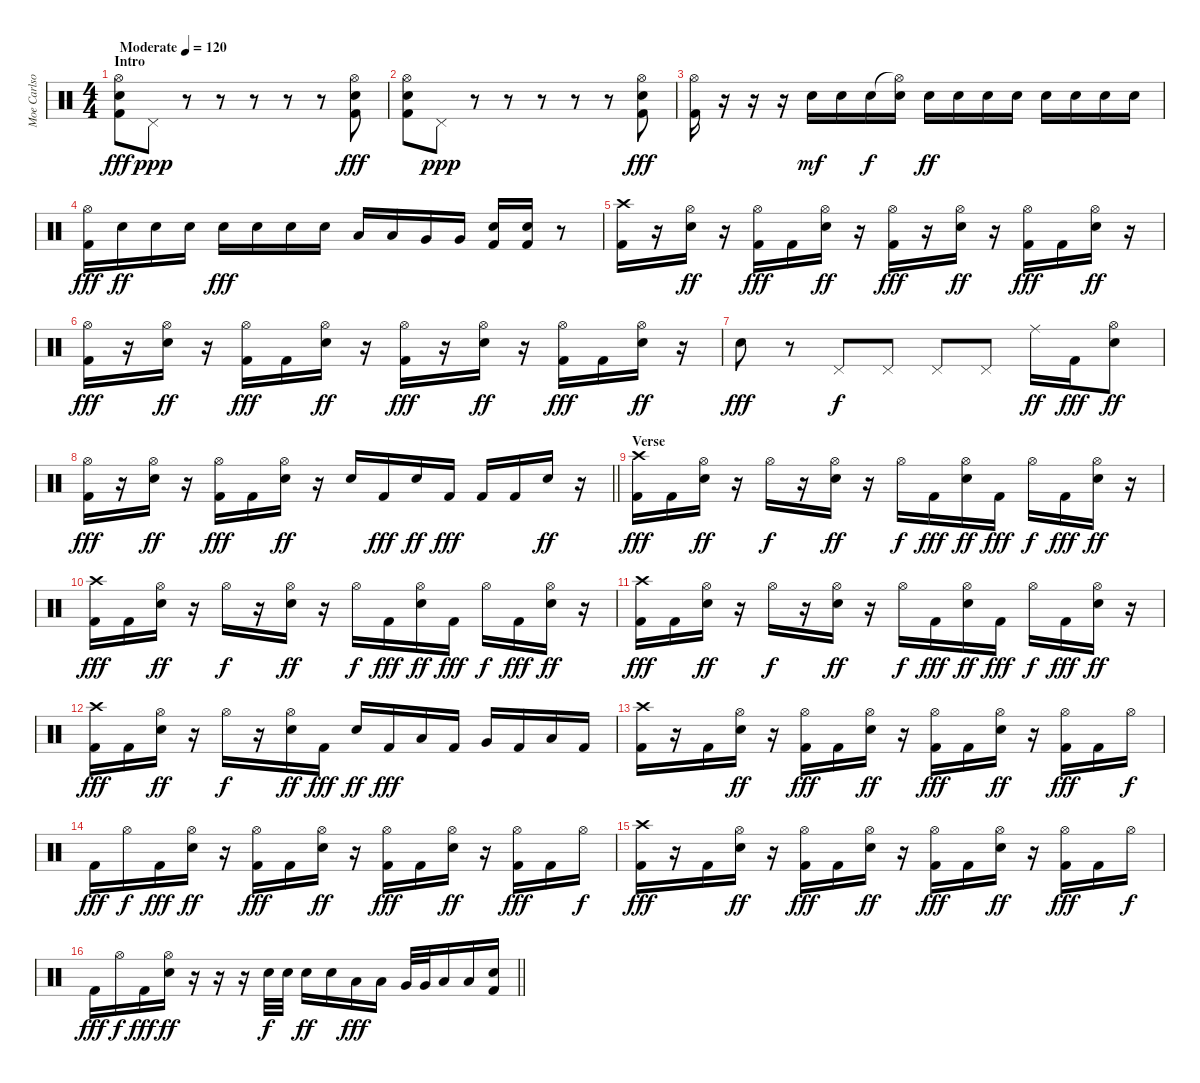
\track ("Moe Carlson" "Moe Carlso") {instrument percussion}
\staff {score}
\articulation defaults
\ts (4 4)
\section ("" "Intro")
\tempo (120 "Moderate")
\clef neutral
\ks c
("Hi-Hat (open)" "Electric Snare (hit)" "Kick (hit) 2").8{dy fff} "Pedal Hi-Hat (hit)".8{dy ppp} r.8 r.8 r.8 r.8 r.8 ("Hi-Hat (open)" "Electric Snare (hit)" "Kick (hit) 2").8{dy fff} |
("Hi-Hat (open)" "Electric Snare (hit)" "Kick (hit) 2").8 "Pedal Hi-Hat (hit)".8{dy ppp} r.8 r.8 r.8 r.8 r.8 ("Hi-Hat (open)" "Electric Snare (hit)" "Kick (hit) 2").8{dy fff} |
("Hi-Hat (open)" "Kick (hit) 2").16 r.16 r.16 r.16 "Electric Snare (hit)".16{dy mf} "Electric Snare (hit)".16 "Electric Snare (hit)".16{dy f} ("Hi-Hat (open)"{t} "Electric Snare (hit)").16 "Electric Snare (hit)".16{dy ff} "Electric Snare (hit)".16 "Electric Snare (hit)".16 "Electric Snare (hit)".16 "Electric Snare (hit)".16 "Electric Snare (hit)".16 "Electric Snare (hit)".16 "Electric Snare (hit)".16 |
("Hi-Hat (open)" "Kick (hit) 2").16{dy fff} "Electric Snare (hit)".16{dy ff} "Electric Snare (hit)".16 "Electric Snare (hit)".16 "Electric Snare (hit)".16{dy fff} "Electric Snare (hit)".16 "Electric Snare (hit)".16 "Electric Snare (hit)".16 "Low Tom (hit)".16 "Low Tom (hit)".16 "Very Low Tom (hit)".16 "Very Low Tom (hit)".16 ("Electric Snare (hit)" "Kick (hit) 2").16 ("Electric Snare (hit)" "Kick (hit) 2").16 r.8 |
("Crash high (hit)" "Kick (hit) 2").16 r.16 ("Hi-Hat (open)" "Electric Snare (hit)").16{dy ff} r.16 ("Hi-Hat (open)" "Kick (hit) 2").16{dy fff} "Kick (hit) 2".16 ("Hi-Hat (open)" "Electric Snare (hit)").16{dy ff} r.16 ("Hi-Hat (open)" "Kick (hit) 2").16{dy fff} r.16 ("Hi-Hat (open)" "Electric Snare (hit)").16{dy ff} r.16 ("Hi-Hat (open)" "Kick (hit) 2").16{dy fff} "Kick (hit) 2".16 ("Hi-Hat (open)" "Electric Snare (hit)").16{dy ff} r.16 |
("Hi-Hat (open)" "Kick (hit) 2").16{dy fff} r.16 ("Hi-Hat (open)" "Electric Snare (hit)").16{dy ff} r.16 ("Hi-Hat (open)" "Kick (hit) 2").16{dy fff} "Kick (hit) 2".16 ("Hi-Hat (open)" "Electric Snare (hit)").16{dy ff} r.16 ("Hi-Hat (open)" "Kick (hit) 2").16{dy fff} r.16 ("Hi-Hat (open)" "Electric Snare (hit)").16{dy ff} r.16 ("Hi-Hat (open)" "Kick (hit) 2").16{dy fff} "Kick (hit) 2".16 ("Hi-Hat (open)" "Electric Snare (hit)").16{dy ff} r.16 |
"Electric Snare (hit)".8{dy fff} r.8 "Pedal Hi-Hat (hit)".8{dy f} "Pedal Hi-Hat (hit)".8 "Pedal Hi-Hat (hit)".8 "Pedal Hi-Hat (hit)".8 "Ride (middle)".16{dy ff} "Kick (hit) 2".16{dy fff} ("Hi-Hat (open)" "Electric Snare (hit)").8{dy ff} |
\barLineRight lightlight
("Hi-Hat (open)" "Kick (hit) 2").16{dy fff} r.16 ("Hi-Hat (open)" "Electric Snare (hit)").16{dy ff} r.16 ("Hi-Hat (open)" "Kick (hit) 2").16{dy fff} "Kick (hit) 2".16 ("Hi-Hat (open)" "Electric Snare (hit)").16{dy ff} r.16 "Electric Snare (hit)".16 "Kick (hit) 2".16{dy fff} "Electric Snare (hit)".16{dy ff} "Kick (hit) 2".16{dy fff} "Kick (hit) 2".16 "Kick (hit) 2".16 "Electric Snare (hit)".16{dy ff} r.16 |
\section ("" "Verse")
("Crash high (hit)" "Kick (hit) 2").16{dy fff} "Kick (hit) 2".16 ("Hi-Hat (open)" "Electric Snare (hit)").16{dy ff} r.16 "Hi-Hat (open)".16{dy f} r.16 ("Hi-Hat (open)" "Electric Snare (hit)").16{dy ff} r.16 "Hi-Hat (open)".16{dy f} "Kick (hit) 2".16{dy fff} ("Hi-Hat (open)" "Electric Snare (hit)").16{dy ff} "Kick (hit) 2".16{dy fff} "Hi-Hat (open)".16{dy f} "Kick (hit) 2".16{dy fff} ("Hi-Hat (open)" "Electric Snare (hit)").16{dy ff} r.16 |
("Crash high (hit)" "Kick (hit) 2").16{dy fff} "Kick (hit) 2".16 ("Hi-Hat (open)" "Electric Snare (hit)").16{dy ff} r.16 "Hi-Hat (open)".16{dy f} r.16 ("Hi-Hat (open)" "Electric Snare (hit)").16{dy ff} r.16 "Hi-Hat (open)".16{dy f} "Kick (hit) 2".16{dy fff} ("Hi-Hat (open)" "Electric Snare (hit)").16{dy ff} "Kick (hit) 2".16{dy fff} "Hi-Hat (open)".16{dy f} "Kick (hit) 2".16{dy fff} ("Hi-Hat (open)" "Electric Snare (hit)").16{dy ff} r.16 |
("Crash high (hit)" "Kick (hit) 2").16{dy fff} "Kick (hit) 2".16 ("Hi-Hat (open)" "Electric Snare (hit)").16{dy ff} r.16 "Hi-Hat (open)".16{dy f} r.16 ("Hi-Hat (open)" "Electric Snare (hit)").16{dy ff} r.16 "Hi-Hat (open)".16{dy f} "Kick (hit) 2".16{dy fff} ("Hi-Hat (open)" "Electric Snare (hit)").16{dy ff} "Kick (hit) 2".16{dy fff} "Hi-Hat (open)".16{dy f} "Kick (hit) 2".16{dy fff} ("Hi-Hat (open)" "Electric Snare (hit)").16{dy ff} r.16 |
("Crash high (hit)" "Kick (hit) 2").16{dy fff} "Kick (hit) 2".16 ("Hi-Hat (open)" "Electric Snare (hit)").16{dy ff} r.16 "Hi-Hat (open)".16{dy f} r.16 ("Hi-Hat (open)" "Electric Snare (hit)").16{dy ff} "Kick (hit) 2".16{dy fff} "Electric Snare (hit)".16{dy ff} "Kick (hit) 2".16{dy fff} "Low Tom (hit)".16 "Kick (hit) 2".16 "Very Low Tom (hit)".16 "Kick (hit) 2".16 "Low Floor Tom (hit)".16 "Kick (hit) 2".16 |
("Crash high (hit)" "Kick (hit) 2").16 r.16 "Kick (hit) 2".16 ("Hi-Hat (open)" "Electric Snare (hit)").16{dy ff} r.16 ("Hi-Hat (open)" "Kick (hit) 2").16{dy fff} "Kick (hit) 2".16 ("Hi-Hat (open)" "Electric Snare (hit)").16{dy ff} r.16 ("Hi-Hat (open)" "Kick (hit) 2").16{dy fff} "Kick (hit) 2".16 ("Hi-Hat (open)" "Electric Snare (hit)").16{dy ff} r.16 ("Hi-Hat (open)" "Kick (hit) 2").16{dy fff} "Kick (hit) 2".16 "Hi-Hat (open)".16{dy f} |
"Kick (hit) 2".16{dy fff} "Hi-Hat (open)".16{dy f} "Kick (hit) 2".16{dy fff} ("Hi-Hat (open)" "Electric Snare (hit)").16{dy ff} r.16 ("Hi-Hat (open)" "Kick (hit) 2").16{dy fff} "Kick (hit) 2".16 ("Hi-Hat (open)" "Electric Snare (hit)").16{dy ff} r.16 ("Hi-Hat (open)" "Kick (hit) 2").16{dy fff} "Kick (hit) 2".16 ("Hi-Hat (open)" "Electric Snare (hit)").16{dy ff} r.16 ("Hi-Hat (open)" "Kick (hit) 2").16{dy fff} "Kick (hit) 2".16 "Hi-Hat (open)".16{dy f} |
("Crash high (hit)" "Kick (hit) 2").16{dy fff} r.16 "Kick (hit) 2".16 ("Hi-Hat (open)" "Electric Snare (hit)").16{dy ff} r.16 ("Hi-Hat (open)" "Kick (hit) 2").16{dy fff} "Kick (hit) 2".16 ("Hi-Hat (open)" "Electric Snare (hit)").16{dy ff} r.16 ("Hi-Hat (open)" "Kick (hit) 2").16{dy fff} "Kick (hit) 2".16 ("Hi-Hat (open)" "Electric Snare (hit)").16{dy ff} r.16 ("Hi-Hat (open)" "Kick (hit) 2").16{dy fff} "Kick (hit) 2".16 "Hi-Hat (open)".16{dy f} |
\barLineRight lightlight "Kick (hit) 2".16{dy fff} "Hi-Hat (open)".16{dy f} "Kick (hit) 2".16{dy fff}
("Hi-Hat (open)" "Electric Snare (hit)").16{dy ff} r.16 r.16 r.16 "Electric Snare (hit)".32{dy f} "Electric Snare (hit)".32 "Electric Snare (hit)".16{dy ff} "Electric Snare (hit)".16 "Low Tom (hit)".16{dy fff} "Low Tom (hit)".16 "Very Low Tom (hit)".32 "Very Low Tom (hit)".32 "Low Floor Tom (hit)".16 "Low Floor Tom (hit)".16 ("Electric Snare (hit)" "Kick (hit) 2").16
